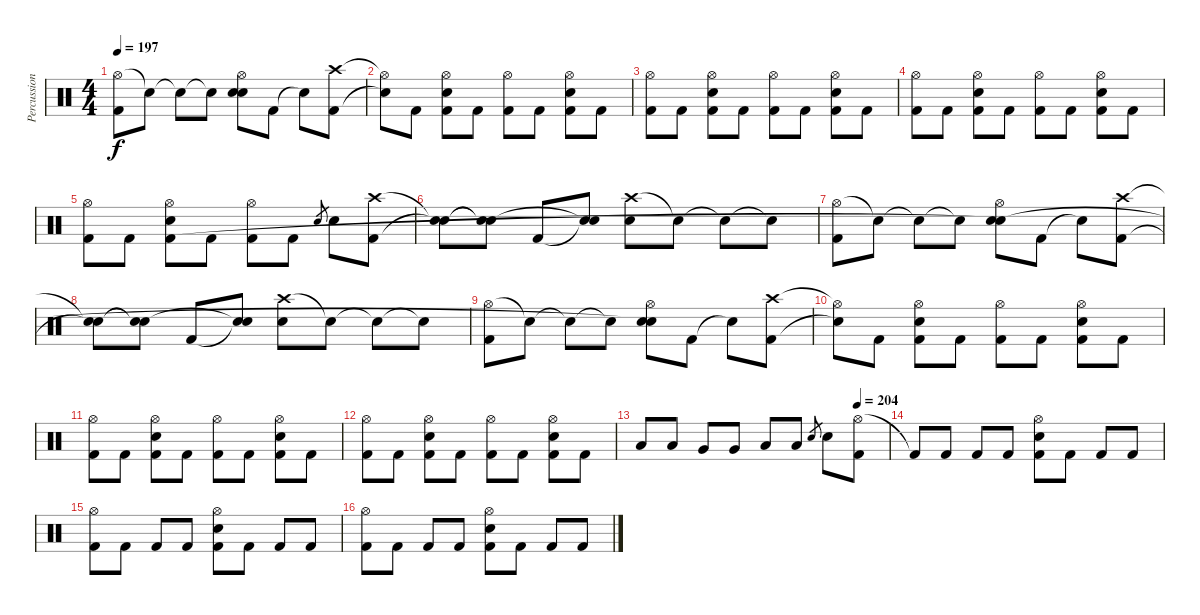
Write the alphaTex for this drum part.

\track ("Percussion" "Percussion") {instrument percussion}
\staff {score}
\articulation defaults
\ts (4 4)
\tempo 197
\clef neutral
\ks c
("Hi-Hat (open)" "Kick (hit) 2").8{dy f} "Snare (hit)"{t}.8 "Snare (hit)"{t}.8 "Snare (hit)"{t}.8 ("Hi-Hat (open)" "Electric Snare (hit)" "Snare (hit)"{t}).8 "Kick (hit) 2".8 "Snare (hit)"{t}.8 ("Crash high (hit)" "Kick (hit) 2").8 |
("Hi-Hat (open)"{t} "Snare (hit)"{t}).8 "Kick (hit) 2".8 ("Hi-Hat (open)" "Electric Snare (hit)" "Kick (hit) 2").8 "Kick (hit) 2".8 ("Hi-Hat (open)" "Kick (hit) 2").8 "Kick (hit) 2".8 ("Hi-Hat (open)" "Electric Snare (hit)" "Kick (hit) 2").8 "Kick (hit) 2".8 |
("Hi-Hat (open)" "Kick (hit) 2").8 "Kick (hit) 2".8 ("Hi-Hat (open)" "Electric Snare (hit)" "Kick (hit) 2").8 "Kick (hit) 2".8 ("Hi-Hat (open)" "Kick (hit) 2").8 "Kick (hit) 2".8 ("Hi-Hat (open)" "Electric Snare (hit)" "Kick (hit) 2").8 "Kick (hit) 2".8 |
("Hi-Hat (open)" "Kick (hit) 2").8 "Kick (hit) 2".8 ("Hi-Hat (open)" "Electric Snare (hit)" "Kick (hit) 2").8 "Kick (hit) 2".8 ("Hi-Hat (open)" "Kick (hit) 2").8 "Kick (hit) 2".8 ("Hi-Hat (open)" "Electric Snare (hit)" "Kick (hit) 2").8 "Kick (hit) 2".8 |
("Hi-Hat (open)" "Kick (hit) 2").8 "Kick (hit) 2".8 ("Hi-Hat (open)" "Electric Snare (hit)" "Kick (hit) 2").8 "Kick (hit) 2".8 ("Hi-Hat (open)" "Kick (hit) 2").8 "Kick (hit) 2".8 "Snare (hit) 2".8{gr} "Electric Snare (hit)".8 ("Crash high (hit)" "Kick (hit) 2").8 |
("Snare (hit)"{t} "Snare (hit)"{t}).8 ("Snare (hit)"{t} "Snare (hit)"{t}).8 "Kick (hit) 2".8 ("Snare (hit)"{t} "Snare (hit)"{t}).8 ("Crash high (hit)" "Electric Snare (hit)").8 "Snare (hit)"{t}.8 "Snare (hit)"{t}.8 "Snare (hit)"{t}.8 |
("Hi-Hat (open)" "Kick (hit) 2").8 "Snare (hit)"{t}.8 "Snare (hit)"{t}.8 "Snare (hit)"{t}.8 ("Hi-Hat (open)" "Electric Snare (hit)" "Snare (hit)"{t}).8 "Kick (hit) 2".8 "Snare (hit)"{t}.8 ("Crash high (hit)" "Kick (hit) 2").8 |
("Snare (hit)"{t} "Snare (hit)"{t}).8 ("Snare (hit)"{t} "Snare (hit)"{t}).8 "Kick (hit) 2".8 ("Snare (hit)"{t} "Snare (hit)"{t}).8 ("Crash high (hit)" "Electric Snare (hit)").8 "Snare (hit)"{t}.8 "Snare (hit)"{t}.8 "Snare (hit)"{t}.8 |
("Hi-Hat (open)" "Kick (hit) 2").8 "Snare (hit)"{t}.8 "Snare (hit)"{t}.8 "Snare (hit)"{t}.8 ("Hi-Hat (open)" "Electric Snare (hit)" "Snare (hit)"{t}).8 "Kick (hit) 2".8 "Snare (hit)"{t}.8 ("Crash high (hit)" "Kick (hit) 2").8 |
("Hi-Hat (open)"{t} "Snare (hit)"{t}).8 "Kick (hit) 2".8 ("Hi-Hat (open)" "Electric Snare (hit)" "Kick (hit) 2").8 "Kick (hit) 2".8 ("Hi-Hat (open)" "Kick (hit) 2").8 "Kick (hit) 2".8 ("Hi-Hat (open)" "Electric Snare (hit)" "Kick (hit) 2").8 "Kick (hit) 2".8 |
("Hi-Hat (open)" "Kick (hit) 2").8 "Kick (hit) 2".8 ("Hi-Hat (open)" "Electric Snare (hit)" "Kick (hit) 2").8 "Kick (hit) 2".8 ("Hi-Hat (open)" "Kick (hit) 2").8 "Kick (hit) 2".8 ("Hi-Hat (open)" "Electric Snare (hit)" "Kick (hit) 2").8 "Kick (hit) 2".8 |
("Hi-Hat (open)" "Kick (hit) 2").8 "Kick (hit) 2".8 ("Hi-Hat (open)" "Electric Snare (hit)" "Kick (hit) 2").8 "Kick (hit) 2".8 ("Hi-Hat (open)" "Kick (hit) 2").8 "Kick (hit) 2".8 ("Hi-Hat (open)" "Electric Snare (hit)" "Kick (hit) 2").8 "Kick (hit) 2".8 |
\tempo (204 0.875)
"Low Tom (hit)".8 "Low Tom (hit)".8 "Very Low Tom (hit)".8 "Very Low Tom (hit)".8 "Low Floor Tom (hit)".8 "Low Floor Tom (hit)".8 "Electric Snare (hit)".8{gr} "Electric Snare (hit)".8 ("Hi-Hat (open)" "Kick (hit) 2").8 |
"Kick (hit) 2"{t}.8 "Kick (hit) 2".8 "Kick (hit) 2".8 "Kick (hit) 2".8 ("Hi-Hat (open)" "Electric Snare (hit)" "Kick (hit) 2").8 "Kick (hit) 2".8 "Kick (hit) 2".8 "Kick (hit) 2".8 |
("Hi-Hat (open)" "Kick (hit) 2").8 "Kick (hit) 2".8 "Kick (hit) 2".8 "Kick (hit) 2".8 ("Hi-Hat (open)" "Electric Snare (hit)" "Kick (hit) 2").8 "Kick (hit) 2".8 "Kick (hit) 2".8 "Kick (hit) 2".8 |
("Hi-Hat (open)" "Kick (hit) 2").8 "Kick (hit) 2".8 "Kick (hit) 2".8 "Kick (hit) 2".8 ("Hi-Hat (open)" "Electric Snare (hit)" "Kick (hit) 2").8 "Kick (hit) 2".8 "Kick (hit) 2".8 "Kick (hit) 2".8
